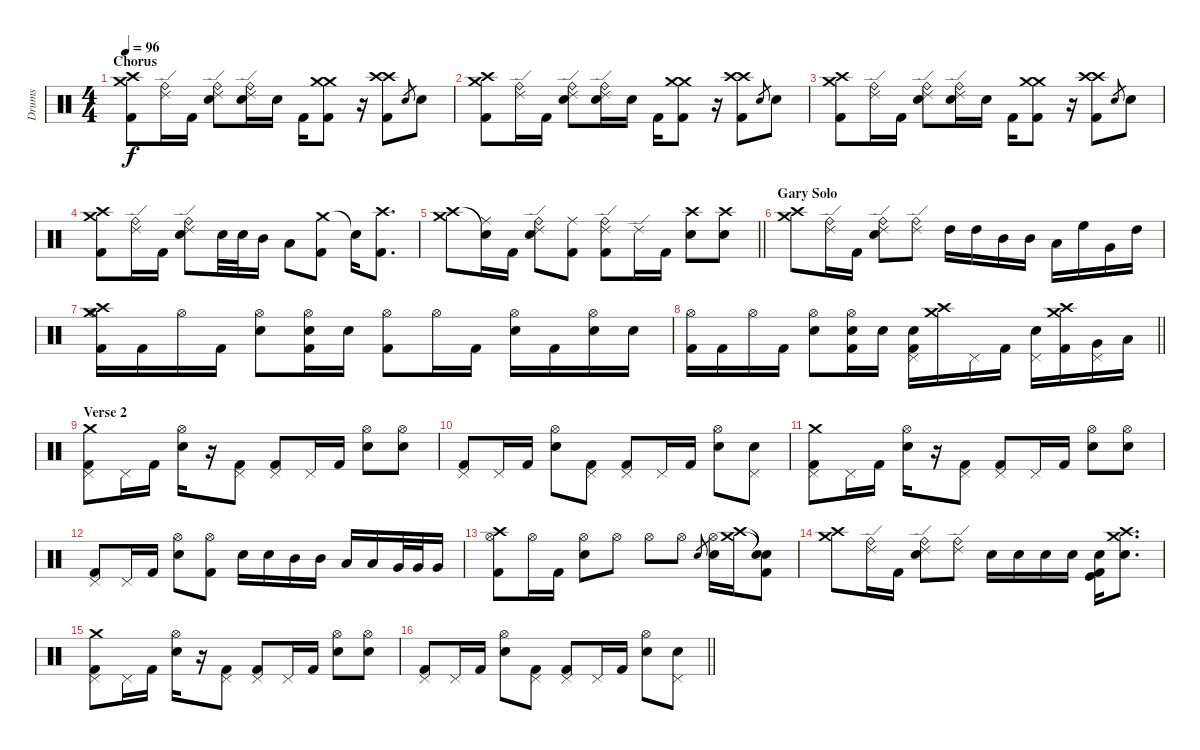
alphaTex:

\track ("Drums" "Drums") {instrument percussion}
\staff {score}
\articulation defaults
\ts (4 4)
\section ("" "Chorus")
\tempo 96
\clef neutral
\ks c
("Crash medium (hit)" "Crash high (hit)" "Kick (hit) 2").8{dy f} ("Ride (edge) 2" "Ride (bell)").16 "Kick (hit) 2".16 ("Ride (edge) 2" "Ride (bell)" "Electric Snare (hit)").8 ("Ride (edge) 2" "Ride (bell)" "Electric Snare (hit)").16 "Electric Snare (hit)".16 "Kick (hit) 2".16 ("Crash medium (hit)" "Crash medium (hit)" "Kick (hit) 2").8 r.16 ("Crash high (hit)" "Crash high (hit)" "Kick (hit) 2").8 "Electric Snare (hit)".8{gr} "Electric Snare (hit)".8 |
("Crash medium (hit)" "Crash high (hit)" "Kick (hit) 2").8 ("Ride (edge) 2" "Ride (bell)").16 "Kick (hit) 2".16 ("Ride (edge) 2" "Ride (bell)" "Electric Snare (hit)").8 ("Ride (edge) 2" "Ride (bell)" "Electric Snare (hit)").16 "Electric Snare (hit)".16 "Kick (hit) 2".16 ("Crash medium (hit)" "Crash medium (hit)" "Kick (hit) 2").8 r.16 ("Crash high (hit)" "Crash high (hit)" "Kick (hit) 2").8 "Electric Snare (hit)".8{gr} "Electric Snare (hit)".8 |
("Crash medium (hit)" "Crash high (hit)" "Kick (hit) 2").8 ("Ride (edge) 2" "Ride (bell)").16 "Kick (hit) 2".16 ("Ride (edge) 2" "Ride (bell)" "Electric Snare (hit)").8 ("Ride (edge) 2" "Ride (bell)" "Electric Snare (hit)").16 "Electric Snare (hit)".16 "Kick (hit) 2".16 ("Crash medium (hit)" "Crash medium (hit)" "Kick (hit) 2").8 r.16 ("Crash high (hit)" "Crash high (hit)" "Kick (hit) 2").8 "Electric Snare (hit)".8{gr} "Electric Snare (hit)".8 |
("Crash medium (hit)" "Crash high (hit)" "Kick (hit) 2").8 ("Ride (edge) 2" "Ride (bell)").16 "Kick (hit) 2".16 ("Ride (edge) 2" "Ride (bell)" "Electric Snare (hit)").8 "Electric Snare (hit)".32 "Electric Snare (hit)".32 "Mid Tom (hit)".16 "Low Tom (hit)".8 ("Crash medium (hit)" "Kick (hit) 2").8 "Snare (hit)"{t}.16 ("Crash high (hit)" "Kick (hit) 2").8{d} |
\barLineRight lightlight
("Crash medium (hit)" "Crash high (hit)").8 ("Ride (middle)" "Snare (hit)"{t}).16 "Kick (hit) 2".16 ("Ride (edge) 2" "Ride (bell)" "Electric Snare (hit)").8 ("Ride (middle)" "Kick (hit) 2").8 ("Ride (edge) 2" "Ride (bell)" "Kick (hit) 2").8 "Ride (edge) 2".16 "Kick (hit) 2".16 ("Crash high (hit)" "Electric Snare (hit)").8 ("Crash high (hit)" "Electric Snare (hit)").8 |
\section ("" "Gary Solo")
("Crash medium (hit)" "Crash high (hit)").8 ("Ride (edge) 2" "Ride (bell)").16 "Kick (hit) 2".16 ("Ride (edge) 2" "Ride (bell)" "Electric Snare (hit)").8 ("Ride (edge) 2" "Ride (bell)").8 "High Tom (hit)".16 "High Tom (hit)".16 "Mid Tom (hit)".16 "Mid Tom (hit)".16 "Low Tom (hit)".16 "High Floor Tom (hit)".16 "Very Low Tom (hit)".16 "High Tom (hit)".16 |
("Crash high (hit)" "Crash medium (hit)" "Hi-Hat (open)" "Kick (hit) 2").16 "Kick (hit) 2".16 "Hi-Hat (open)".16 "Kick (hit) 2".16 ("Hi-Hat (open)" "Electric Snare (hit)").8 ("Hi-Hat (open)" "Electric Snare (hit)" "Kick (hit) 2").16 "Electric Snare (hit)".16 ("Hi-Hat (open)" "Kick (hit) 2").8 "Hi-Hat (open)".16 "Kick (hit) 2".16 ("Hi-Hat (open)" "Electric Snare (hit)").16 "Kick (hit) 2".16 ("Hi-Hat (open)" "Electric Snare (hit)").16 "Electric Snare (hit)".16 |
\barLineRight lightlight
("Hi-Hat (open)" "Kick (hit) 2").16 "Kick (hit) 2".16 "Hi-Hat (open)".16 "Kick (hit) 2".16 ("Hi-Hat (open)" "Electric Snare (hit)").8 ("Hi-Hat (open)" "Electric Snare (hit)" "Kick (hit) 2").16 "Electric Snare (hit)".16 ("Pedal Hi-Hat (hit)" "Electric Snare (hit)" "Kick (hit) 2").16 ("Crash medium (hit)" "Crash high (hit)").16 "Pedal Hi-Hat (hit)".16 "Kick (hit) 2".16 ("Pedal Hi-Hat (hit)" "Electric Snare (hit)").16 ("Crash high (hit)" "Crash medium (hit)" "Kick (hit) 2").16 ("Pedal Hi-Hat (hit)" "Very Low Tom (hit)").16 "Low Floor Tom (hit)".16 |
\section ("" "Verse 2")
("Crash medium (hit)" "Pedal Hi-Hat (hit)" "Kick (hit) 2").8 "Pedal Hi-Hat (hit)".16 "Kick (hit) 2".16 ("Electric Snare (hit)" "Hi-Hat (open)").16 r.16 ("Pedal Hi-Hat (hit)" "Kick (hit) 2").8 ("Pedal Hi-Hat (hit)" "Kick (hit) 2").8 "Pedal Hi-Hat (hit)".16 "Kick (hit) 2".16 ("Electric Snare (hit)" "Hi-Hat (open)").8 ("Electric Snare (hit)" "Hi-Hat (open)").8 |
("Pedal Hi-Hat (hit)" "Kick (hit) 2").8 "Pedal Hi-Hat (hit)".16 "Kick (hit) 2".16 ("Electric Snare (hit)" "Hi-Hat (open)").8 ("Pedal Hi-Hat (hit)" "Kick (hit) 2").8 ("Pedal Hi-Hat (hit)" "Kick (hit) 2").8 "Pedal Hi-Hat (hit)".16 "Kick (hit) 2".16 ("Electric Snare (hit)" "Hi-Hat (open)").8 ("Electric Snare (hit)" "Pedal Hi-Hat (hit)").8 |
("Crash medium (hit)" "Pedal Hi-Hat (hit)" "Kick (hit) 2").8 "Pedal Hi-Hat (hit)".16 "Kick (hit) 2".16 ("Electric Snare (hit)" "Hi-Hat (open)").16 r.16 ("Pedal Hi-Hat (hit)" "Kick (hit) 2").8 ("Pedal Hi-Hat (hit)" "Kick (hit) 2").8 "Pedal Hi-Hat (hit)".16 "Kick (hit) 2".16 ("Electric Snare (hit)" "Hi-Hat (open)").8 ("Electric Snare (hit)" "Hi-Hat (open)").8 |
("Pedal Hi-Hat (hit)" "Kick (hit) 2").8 "Pedal Hi-Hat (hit)".16 "Kick (hit) 2".16 ("Electric Snare (hit)" "Hi-Hat (open)").8 ("Hi-Hat (open)" "Kick (hit) 2").8 "Electric Snare (hit)".16 "Electric Snare (hit)".16 "Mid Tom (hit)".16 "Mid Tom (hit)".16 "Low Tom (hit)".16 "Low Tom (hit)".16 "Very Low Tom (hit)".32 "Very Low Tom (hit)".32 "Very Low Tom (hit)".16 |
("Crash high (hit)" "Hi-Hat (open)" "Kick (hit) 2").8 "Hi-Hat (open)".16 "Kick (hit) 2".16 ("Electric Snare (hit)" "Hi-Hat (open)").8 "Hi-Hat (open)".8 "Hi-Hat (open)".8 "Hi-Hat (open)".8 "Electric Snare (hit)".8{gr} ("Electric Snare (hit)" "Hi-Hat (open)").16 ("Crash high (hit)" "Crash medium (hit)").16 ("Snare (hit)"{t} "Snare (hit)"{t} "Kick (hit) 2").8 |
("Crash high (hit)" "Crash medium (hit)").8 ("Ride (bell)" "Ride (edge) 2").16 "Kick (hit) 2".16 ("Ride (bell)" "Ride (edge) 2" "Electric Snare (hit)").8 ("Ride (bell)" "Ride (edge) 2").8 "Electric Snare (hit)".16 "Electric Snare (hit)".16 "Electric Snare (hit)".16 "Electric Snare (hit)".16 ("Electric Snare (hit)" "Kick (hit)" "Kick (hit) 2").16 ("Crash medium (hit)" "Crash high (hit)" "Electric Snare (hit)").8{d} |
("Crash medium (hit)" "Pedal Hi-Hat (hit)" "Kick (hit) 2").8 "Pedal Hi-Hat (hit)".16 "Kick (hit) 2".16 ("Electric Snare (hit)" "Hi-Hat (open)").16 r.16 ("Pedal Hi-Hat (hit)" "Kick (hit) 2").8 ("Pedal Hi-Hat (hit)" "Kick (hit) 2").8 "Pedal Hi-Hat (hit)".16 "Kick (hit) 2".16 ("Electric Snare (hit)" "Hi-Hat (open)").8 ("Electric Snare (hit)" "Hi-Hat (open)").8 |
\barLineRight lightlight
("Pedal Hi-Hat (hit)" "Kick (hit) 2").8 "Pedal Hi-Hat (hit)".16 "Kick (hit) 2".16 ("Electric Snare (hit)" "Hi-Hat (open)").8 ("Pedal Hi-Hat (hit)" "Kick (hit) 2").8 ("Pedal Hi-Hat (hit)" "Kick (hit) 2").8 "Pedal Hi-Hat (hit)".16 "Kick (hit) 2".16 ("Electric Snare (hit)" "Hi-Hat (open)").8 ("Electric Snare (hit)" "Pedal Hi-Hat (hit)").8
